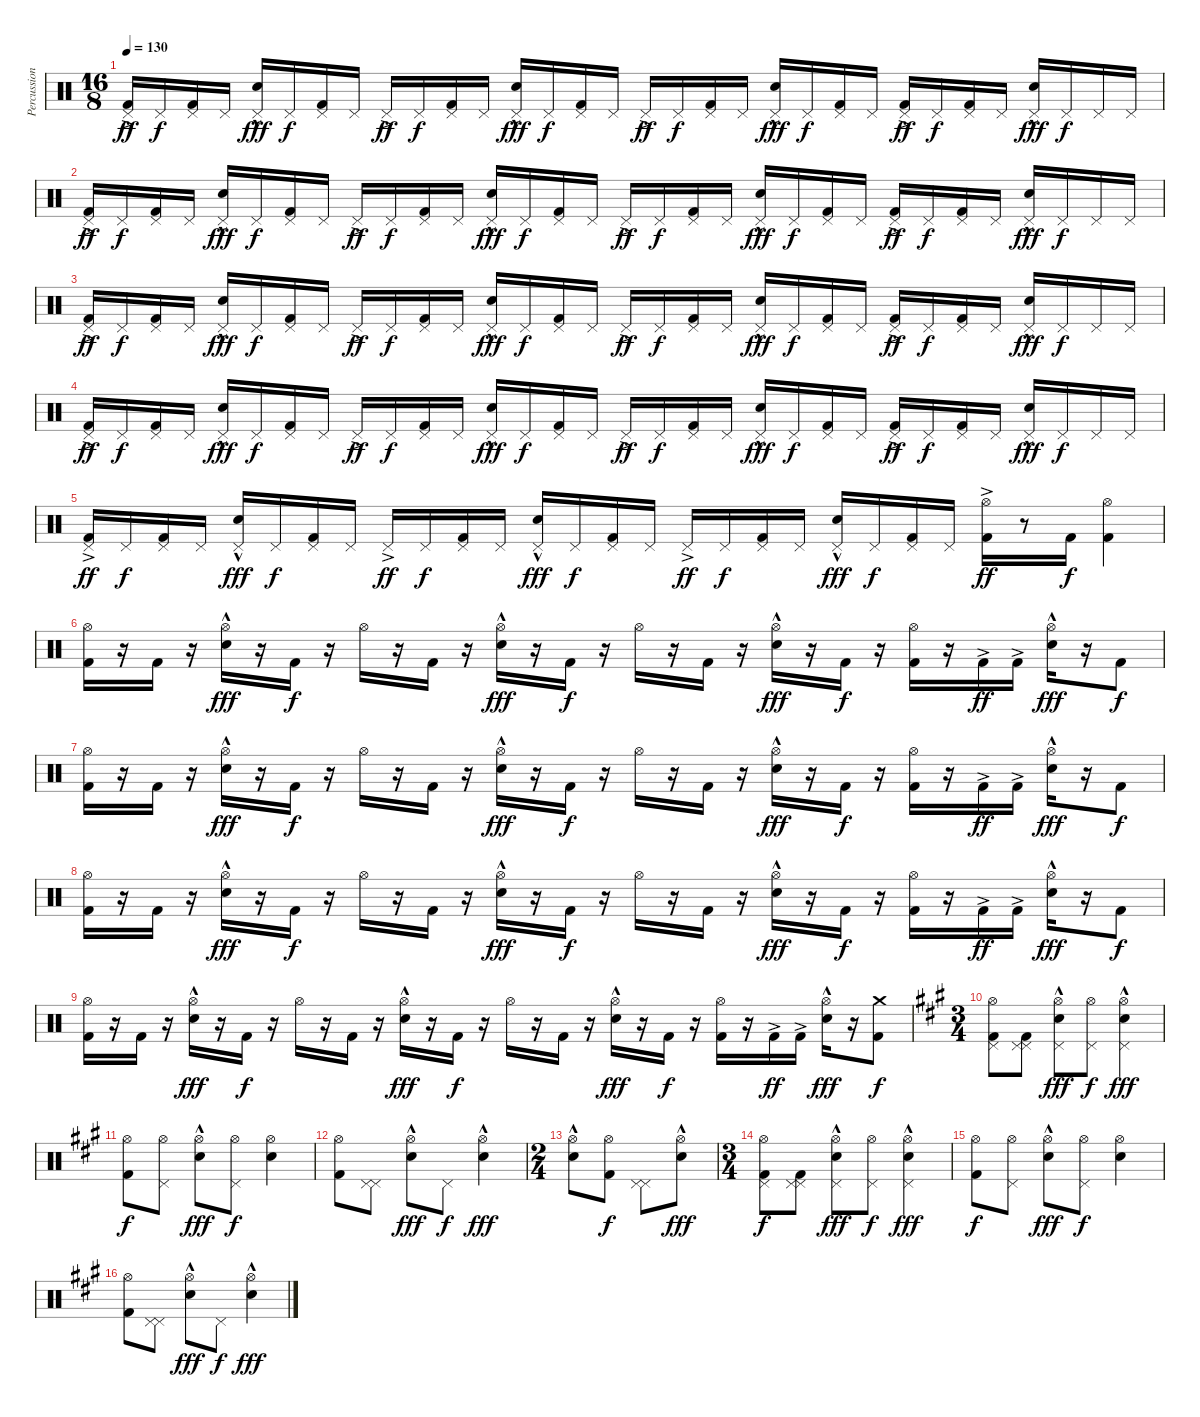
\track ("Percussion" "Percussion") {instrument percussion bank 110}
\staff {score}
\articulation defaults
\ts (16 8)
\tempo 130
\clef neutral
\ks c
("Pedal Hi-Hat (hit)"{ac} "Kick (hit) 2").16{dy ff} "Pedal Hi-Hat (hit)".16{dy f} ("Pedal Hi-Hat (hit)" "Kick (hit) 2").16 "Pedal Hi-Hat (hit)".16 ("Pedal Hi-Hat (hit)"{hac} "Electric Snare (hit)"{hac}).16{dy fff} "Pedal Hi-Hat (hit)".16{dy f} ("Pedal Hi-Hat (hit)" "Kick (hit) 2").16 "Pedal Hi-Hat (hit)".16 "Pedal Hi-Hat (hit)"{ac}.16{dy ff} "Pedal Hi-Hat (hit)".16{dy f} ("Pedal Hi-Hat (hit)" "Kick (hit) 2").16 "Pedal Hi-Hat (hit)".16 ("Pedal Hi-Hat (hit)"{hac} "Electric Snare (hit)"{hac}).16{dy fff} "Pedal Hi-Hat (hit)".16{dy f} ("Pedal Hi-Hat (hit)" "Kick (hit) 2").16 "Pedal Hi-Hat (hit)".16 "Pedal Hi-Hat (hit)"{ac}.16{dy ff} "Pedal Hi-Hat (hit)".16{dy f} ("Pedal Hi-Hat (hit)" "Kick (hit) 2").16 "Pedal Hi-Hat (hit)".16 ("Pedal Hi-Hat (hit)"{hac} "Electric Snare (hit)"{hac}).16{dy fff} "Pedal Hi-Hat (hit)".16{dy f} ("Pedal Hi-Hat (hit)" "Kick (hit) 2").16 "Pedal Hi-Hat (hit)".16 ("Pedal Hi-Hat (hit)"{ac} "Kick (hit) 2").16{dy ff} "Pedal Hi-Hat (hit)".16{dy f} ("Pedal Hi-Hat (hit)" "Kick (hit) 2").16 "Pedal Hi-Hat (hit)".16 ("Pedal Hi-Hat (hit)"{hac} "Electric Snare (hit)"{hac}).16{dy fff} "Pedal Hi-Hat (hit)".16{dy f} "Pedal Hi-Hat (hit)".16 "Pedal Hi-Hat (hit)".16 |
("Pedal Hi-Hat (hit)"{ac} "Kick (hit) 2").16{dy ff} "Pedal Hi-Hat (hit)".16{dy f} ("Pedal Hi-Hat (hit)" "Kick (hit) 2").16 "Pedal Hi-Hat (hit)".16 ("Pedal Hi-Hat (hit)"{hac} "Electric Snare (hit)"{hac}).16{dy fff} "Pedal Hi-Hat (hit)".16{dy f} ("Pedal Hi-Hat (hit)" "Kick (hit) 2").16 "Pedal Hi-Hat (hit)".16 "Pedal Hi-Hat (hit)"{ac}.16{dy ff} "Pedal Hi-Hat (hit)".16{dy f} ("Pedal Hi-Hat (hit)" "Kick (hit) 2").16 "Pedal Hi-Hat (hit)".16 ("Pedal Hi-Hat (hit)"{hac} "Electric Snare (hit)"{hac}).16{dy fff} "Pedal Hi-Hat (hit)".16{dy f} ("Pedal Hi-Hat (hit)" "Kick (hit) 2").16 "Pedal Hi-Hat (hit)".16 "Pedal Hi-Hat (hit)"{ac}.16{dy ff} "Pedal Hi-Hat (hit)".16{dy f} ("Pedal Hi-Hat (hit)" "Kick (hit) 2").16 "Pedal Hi-Hat (hit)".16 ("Pedal Hi-Hat (hit)"{hac} "Electric Snare (hit)"{hac}).16{dy fff} "Pedal Hi-Hat (hit)".16{dy f} ("Pedal Hi-Hat (hit)" "Kick (hit) 2").16 "Pedal Hi-Hat (hit)".16 ("Pedal Hi-Hat (hit)"{ac} "Kick (hit) 2").16{dy ff} "Pedal Hi-Hat (hit)".16{dy f} ("Pedal Hi-Hat (hit)" "Kick (hit) 2").16 "Pedal Hi-Hat (hit)".16 ("Pedal Hi-Hat (hit)"{hac} "Electric Snare (hit)"{hac}).16{dy fff} "Pedal Hi-Hat (hit)".16{dy f} "Pedal Hi-Hat (hit)".16 "Pedal Hi-Hat (hit)".16 |
("Pedal Hi-Hat (hit)"{ac} "Kick (hit) 2").16{dy ff} "Pedal Hi-Hat (hit)".16{dy f} ("Pedal Hi-Hat (hit)" "Kick (hit) 2").16 "Pedal Hi-Hat (hit)".16 ("Pedal Hi-Hat (hit)"{hac} "Electric Snare (hit)"{hac}).16{dy fff} "Pedal Hi-Hat (hit)".16{dy f} ("Pedal Hi-Hat (hit)" "Kick (hit) 2").16 "Pedal Hi-Hat (hit)".16 "Pedal Hi-Hat (hit)"{ac}.16{dy ff} "Pedal Hi-Hat (hit)".16{dy f} ("Pedal Hi-Hat (hit)" "Kick (hit) 2").16 "Pedal Hi-Hat (hit)".16 ("Pedal Hi-Hat (hit)"{hac} "Electric Snare (hit)"{hac}).16{dy fff} "Pedal Hi-Hat (hit)".16{dy f} ("Pedal Hi-Hat (hit)" "Kick (hit) 2").16 "Pedal Hi-Hat (hit)".16 "Pedal Hi-Hat (hit)"{ac}.16{dy ff} "Pedal Hi-Hat (hit)".16{dy f} ("Pedal Hi-Hat (hit)" "Kick (hit) 2").16 "Pedal Hi-Hat (hit)".16 ("Pedal Hi-Hat (hit)"{hac} "Electric Snare (hit)"{hac}).16{dy fff} "Pedal Hi-Hat (hit)".16{dy f} ("Pedal Hi-Hat (hit)" "Kick (hit) 2").16 "Pedal Hi-Hat (hit)".16 ("Pedal Hi-Hat (hit)"{ac} "Kick (hit) 2").16{dy ff} "Pedal Hi-Hat (hit)".16{dy f} ("Pedal Hi-Hat (hit)" "Kick (hit) 2").16 "Pedal Hi-Hat (hit)".16 ("Pedal Hi-Hat (hit)"{hac} "Electric Snare (hit)"{hac}).16{dy fff} "Pedal Hi-Hat (hit)".16{dy f} "Pedal Hi-Hat (hit)".16 "Pedal Hi-Hat (hit)".16 |
("Pedal Hi-Hat (hit)"{ac} "Kick (hit) 2").16{dy ff} "Pedal Hi-Hat (hit)".16{dy f} ("Pedal Hi-Hat (hit)" "Kick (hit) 2").16 "Pedal Hi-Hat (hit)".16 ("Pedal Hi-Hat (hit)"{hac} "Electric Snare (hit)"{hac}).16{dy fff} "Pedal Hi-Hat (hit)".16{dy f} ("Pedal Hi-Hat (hit)" "Kick (hit) 2").16 "Pedal Hi-Hat (hit)".16 "Pedal Hi-Hat (hit)"{ac}.16{dy ff} "Pedal Hi-Hat (hit)".16{dy f} ("Pedal Hi-Hat (hit)" "Kick (hit) 2").16 "Pedal Hi-Hat (hit)".16 ("Pedal Hi-Hat (hit)"{hac} "Electric Snare (hit)"{hac}).16{dy fff} "Pedal Hi-Hat (hit)".16{dy f} ("Pedal Hi-Hat (hit)" "Kick (hit) 2").16 "Pedal Hi-Hat (hit)".16 "Pedal Hi-Hat (hit)"{ac}.16{dy ff} "Pedal Hi-Hat (hit)".16{dy f} ("Pedal Hi-Hat (hit)" "Kick (hit) 2").16 "Pedal Hi-Hat (hit)".16 ("Pedal Hi-Hat (hit)"{hac} "Electric Snare (hit)"{hac}).16{dy fff} "Pedal Hi-Hat (hit)".16{dy f} ("Pedal Hi-Hat (hit)" "Kick (hit) 2").16 "Pedal Hi-Hat (hit)".16 ("Pedal Hi-Hat (hit)"{ac} "Kick (hit) 2").16{dy ff} "Pedal Hi-Hat (hit)".16{dy f} ("Pedal Hi-Hat (hit)" "Kick (hit) 2").16 "Pedal Hi-Hat (hit)".16 ("Pedal Hi-Hat (hit)"{hac} "Electric Snare (hit)"{hac}).16{dy fff} "Pedal Hi-Hat (hit)".16{dy f} "Pedal Hi-Hat (hit)".16 "Pedal Hi-Hat (hit)".16 |
("Pedal Hi-Hat (hit)"{ac} "Kick (hit) 2").16{dy ff} "Pedal Hi-Hat (hit)".16{dy f} ("Pedal Hi-Hat (hit)" "Kick (hit) 2").16 "Pedal Hi-Hat (hit)".16 ("Pedal Hi-Hat (hit)"{hac} "Electric Snare (hit)"{hac}).16{dy fff} "Pedal Hi-Hat (hit)".16{dy f} ("Pedal Hi-Hat (hit)" "Kick (hit) 2").16 "Pedal Hi-Hat (hit)".16 "Pedal Hi-Hat (hit)"{ac}.16{dy ff} "Pedal Hi-Hat (hit)".16{dy f} ("Pedal Hi-Hat (hit)" "Kick (hit) 2").16 "Pedal Hi-Hat (hit)".16 ("Pedal Hi-Hat (hit)"{hac} "Electric Snare (hit)"{hac}).16{dy fff} "Pedal Hi-Hat (hit)".16{dy f} ("Pedal Hi-Hat (hit)" "Kick (hit) 2").16 "Pedal Hi-Hat (hit)".16 "Pedal Hi-Hat (hit)"{ac}.16{dy ff} "Pedal Hi-Hat (hit)".16{dy f} ("Pedal Hi-Hat (hit)" "Kick (hit) 2").16 "Pedal Hi-Hat (hit)".16 ("Pedal Hi-Hat (hit)"{hac} "Electric Snare (hit)"{hac}).16{dy fff} "Pedal Hi-Hat (hit)".16{dy f} ("Pedal Hi-Hat (hit)" "Kick (hit) 2").16 "Pedal Hi-Hat (hit)".16 ("Hi-Hat (open)"{ac} "Kick (hit) 2").16{dy ff} r.8 "Kick (hit) 2".16{dy f} ("Hi-Hat (open)" "Kick (hit) 2").4 |
("Hi-Hat (open)" "Kick (hit) 2").16 r.16 "Kick (hit) 2".16 r.16 ("Hi-Hat (open)" "Electric Snare (hit)"{hac}).16{dy fff} r.16 "Kick (hit) 2".16{dy f} r.16 "Hi-Hat (open)".16 r.16 "Kick (hit) 2".16 r.16 ("Hi-Hat (open)" "Electric Snare (hit)"{hac}).16{dy fff} r.16 "Kick (hit) 2".16{dy f} r.16 "Hi-Hat (open)".16 r.16 "Kick (hit) 2".16 r.16 ("Hi-Hat (open)" "Electric Snare (hit)"{hac}).16{dy fff} r.16 "Kick (hit) 2".16{dy f} r.16 ("Hi-Hat (open)" "Kick (hit) 2").16 r.16 "Kick (hit) 2"{ac}.16{dy ff} "Kick (hit) 2"{ac}.16 ("Hi-Hat (open)" "Electric Snare (hit)"{hac}).16{dy fff} r.16 "Kick (hit) 2".8{dy f} |
("Hi-Hat (open)" "Kick (hit) 2").16 r.16 "Kick (hit) 2".16 r.16 ("Hi-Hat (open)" "Electric Snare (hit)"{hac}).16{dy fff} r.16 "Kick (hit) 2".16{dy f} r.16 "Hi-Hat (open)".16 r.16 "Kick (hit) 2".16 r.16 ("Hi-Hat (open)" "Electric Snare (hit)"{hac}).16{dy fff} r.16 "Kick (hit) 2".16{dy f} r.16 "Hi-Hat (open)".16 r.16 "Kick (hit) 2".16 r.16 ("Hi-Hat (open)" "Electric Snare (hit)"{hac}).16{dy fff} r.16 "Kick (hit) 2".16{dy f} r.16 ("Hi-Hat (open)" "Kick (hit) 2").16 r.16 "Kick (hit) 2"{ac}.16{dy ff} "Kick (hit) 2"{ac}.16 ("Hi-Hat (open)" "Electric Snare (hit)"{hac}).16{dy fff} r.16 "Kick (hit) 2".8{dy f} |
("Hi-Hat (open)" "Kick (hit) 2").16 r.16 "Kick (hit) 2".16 r.16 ("Hi-Hat (open)" "Electric Snare (hit)"{hac}).16{dy fff} r.16 "Kick (hit) 2".16{dy f} r.16 "Hi-Hat (open)".16 r.16 "Kick (hit) 2".16 r.16 ("Hi-Hat (open)" "Electric Snare (hit)"{hac}).16{dy fff} r.16 "Kick (hit) 2".16{dy f} r.16 "Hi-Hat (open)".16 r.16 "Kick (hit) 2".16 r.16 ("Hi-Hat (open)" "Electric Snare (hit)"{hac}).16{dy fff} r.16 "Kick (hit) 2".16{dy f} r.16 ("Hi-Hat (open)" "Kick (hit) 2").16 r.16 "Kick (hit) 2"{ac}.16{dy ff} "Kick (hit) 2"{ac}.16 ("Hi-Hat (open)" "Electric Snare (hit)"{hac}).16{dy fff} r.16 "Kick (hit) 2".8{dy f} |
("Hi-Hat (open)" "Kick (hit) 2").16 r.16 "Kick (hit) 2".16 r.16 ("Hi-Hat (open)" "Electric Snare (hit)"{hac}).16{dy fff} r.16 "Kick (hit) 2".16{dy f} r.16 "Hi-Hat (open)".16 r.16 "Kick (hit) 2".16 r.16 ("Hi-Hat (open)" "Electric Snare (hit)"{hac}).16{dy fff} r.16 "Kick (hit) 2".16{dy f} r.16 "Hi-Hat (open)".16 r.16 "Kick (hit) 2".16 r.16 ("Hi-Hat (open)" "Electric Snare (hit)"{hac}).16{dy fff} r.16 "Kick (hit) 2".16{dy f} r.16 ("Hi-Hat (open)" "Kick (hit) 2").16 r.16 "Kick (hit) 2"{ac}.16{dy ff} "Kick (hit) 2"{ac}.16 ("Hi-Hat (open)" "Electric Snare (hit)"{hac}).16{dy fff} r.16 ("Kick (hit) 2" "Crash medium (hit)").8{dy f} |
\ts (3 4)
\ks a
("Hi-Hat (open)" "Kick (hit) 2" "Pedal Hi-Hat (hit)").8 ("Pedal Hi-Hat (hit)" "Pedal Hi-Hat (hit)" "Kick (hit) 2").8 ("Hi-Hat (open)" "Electric Snare (hit)"{hac} "Pedal Hi-Hat (hit)").8{dy fff} ("Hi-Hat (open)" "Pedal Hi-Hat (hit)").8{dy f} ("Hi-Hat (open)" "Electric Snare (hit)"{hac} "Pedal Hi-Hat (hit)"{hac}).4{dy fff} |
("Hi-Hat (open)" "Kick (hit) 2").8{dy f} ("Pedal Hi-Hat (hit)" "Hi-Hat (open)").8 ("Electric Snare (hit)"{hac} "Hi-Hat (open)").8{dy fff} ("Pedal Hi-Hat (hit)" "Hi-Hat (open)").8{dy f} ("Hi-Hat (open)" "Electric Snare (hit)").4 |
("Hi-Hat (open)" "Kick (hit) 2").8 ("Pedal Hi-Hat (hit)" "Pedal Hi-Hat (hit)").8 ("Hi-Hat (open)" "Electric Snare (hit)"{hac}).8{dy fff} "Pedal Hi-Hat (hit)".8{dy f} ("Hi-Hat (open)" "Electric Snare (hit)"{hac}).4{dy fff} |
\ts (2 4)
("Electric Snare (hit)"{hac} "Hi-Hat (open)").8 ("Kick (hit) 2" "Hi-Hat (open)").8{dy f} ("Pedal Hi-Hat (hit)" "Pedal Hi-Hat (hit)").8 ("Electric Snare (hit)"{hac} "Hi-Hat (open)").8{dy fff} |
\ts (3 4)
("Hi-Hat (open)" "Kick (hit) 2" "Pedal Hi-Hat (hit)").8{dy f} ("Pedal Hi-Hat (hit)" "Pedal Hi-Hat (hit)" "Kick (hit) 2").8 ("Hi-Hat (open)" "Electric Snare (hit)"{hac} "Pedal Hi-Hat (hit)").8{dy fff} ("Hi-Hat (open)" "Pedal Hi-Hat (hit)").8{dy f} ("Hi-Hat (open)" "Electric Snare (hit)"{hac} "Pedal Hi-Hat (hit)"{hac}).4{dy fff} |
("Hi-Hat (open)" "Kick (hit) 2").8{dy f} ("Pedal Hi-Hat (hit)" "Hi-Hat (open)").8 ("Electric Snare (hit)"{hac} "Hi-Hat (open)").8{dy fff} ("Pedal Hi-Hat (hit)" "Hi-Hat (open)").8{dy f} ("Hi-Hat (open)" "Electric Snare (hit)").4 |
("Hi-Hat (open)" "Kick (hit) 2").8 ("Pedal Hi-Hat (hit)" "Pedal Hi-Hat (hit)").8 ("Hi-Hat (open)" "Electric Snare (hit)"{hac}).8{dy fff} "Pedal Hi-Hat (hit)".8{dy f} ("Hi-Hat (open)" "Electric Snare (hit)"{hac}).4{dy fff}
